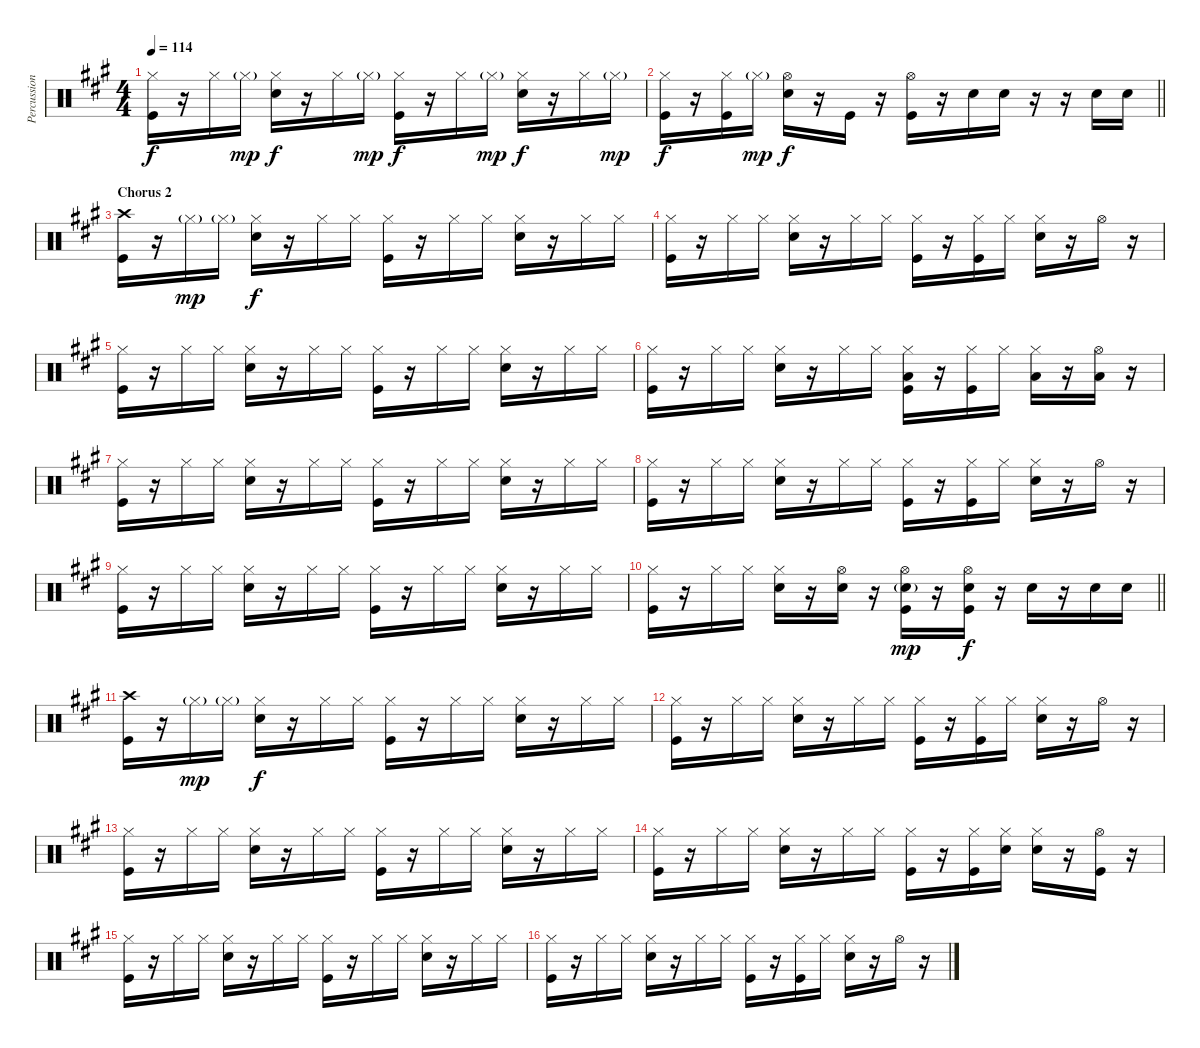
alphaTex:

\track ("Percussion" "Percussion") {instrument percussion}
\staff {score}
\articulation defaults
\ts (4 4)
\tempo 114
\clef neutral
\ks a
("Hi-Hat (closed)" "Kick (hit)").16{dy f} r.16 "Hi-Hat (closed)".16 "Hi-Hat (closed)"{g}.16{dy mp} ("Hi-Hat (closed)" "Snare (hit) 2").16{dy f} r.16 "Hi-Hat (closed)".16 "Hi-Hat (closed)"{g}.16{dy mp} ("Hi-Hat (closed)" "Kick (hit)").16{dy f} r.16 "Hi-Hat (closed)".16 "Hi-Hat (closed)"{g}.16{dy mp} ("Hi-Hat (closed)" "Snare (hit) 2").16{dy f} r.16 "Hi-Hat (closed)".16 "Hi-Hat (closed)"{g}.16{dy mp} |
\barLineRight lightlight
("Hi-Hat (closed)" "Kick (hit)").16{dy f} r.16 ("Hi-Hat (closed)" "Kick (hit)").16 "Hi-Hat (closed)"{g}.16{dy mp} ("Hi-Hat (open)" "Snare (hit) 2").16{dy f} r.16 "Kick (hit)".16 r.16 ("Hi-Hat (open)" "Kick (hit)").16 r.16 "Snare (hit) 2".16 "Snare (hit) 2".16 r.16 r.16 "Snare (hit) 2".16 "Snare (hit) 2".16 |
\section ("" "Chorus 2")
("Crash high (hit)" "Kick (hit)").16 r.16 "Hi-Hat (closed)"{g}.16{dy mp} "Hi-Hat (closed)"{g}.16 ("Hi-Hat (closed)" "Snare (hit) 2").16{dy f} r.16 "Hi-Hat (closed)".16 "Hi-Hat (closed)".16 ("Hi-Hat (closed)" "Kick (hit)").16 r.16 "Hi-Hat (closed)".16 "Hi-Hat (closed)".16 ("Hi-Hat (closed)" "Snare (hit) 2").16 r.16 "Hi-Hat (closed)".16 "Hi-Hat (closed)".16 |
("Hi-Hat (closed)" "Kick (hit)").16 r.16 "Hi-Hat (closed)".16 "Hi-Hat (closed)".16 ("Hi-Hat (closed)" "Snare (hit) 2").16 r.16 "Hi-Hat (closed)".16 "Hi-Hat (closed)".16 ("Hi-Hat (closed)" "Kick (hit)").16 r.16 ("Hi-Hat (closed)" "Kick (hit)").16 "Hi-Hat (closed)".16 ("Hi-Hat (closed)" "Snare (hit) 2").16 r.16 "Hi-Hat (open)".16 r.16 |
("Hi-Hat (closed)" "Kick (hit)").16 r.16 "Hi-Hat (closed)".16 "Hi-Hat (closed)".16 ("Hi-Hat (closed)" "Snare (hit) 2").16 r.16 "Hi-Hat (closed)".16 "Hi-Hat (closed)".16 ("Hi-Hat (closed)" "Kick (hit)").16 r.16 "Hi-Hat (closed)".16 "Hi-Hat (closed)".16 ("Hi-Hat (closed)" "Snare (hit) 2").16 r.16 "Hi-Hat (closed)".16 "Hi-Hat (closed)".16 |
("Hi-Hat (closed)" "Kick (hit)").16 r.16 "Hi-Hat (closed)".16 "Hi-Hat (closed)".16 ("Hi-Hat (closed)" "Snare (hit) 2").16 r.16 "Hi-Hat (closed)".16 "Hi-Hat (closed)".16 ("Hi-Hat (closed)" "Low Tom (hit)" "Kick (hit)").16 r.16 ("Hi-Hat (closed)" "Kick (hit)").16 "Hi-Hat (closed)".16 ("Hi-Hat (closed)" "Low Tom (hit)").16 r.16 ("Hi-Hat (open)" "Low Tom (hit)").16 r.16 |
("Hi-Hat (closed)" "Kick (hit)").16 r.16 "Hi-Hat (closed)".16 "Hi-Hat (closed)".16 ("Hi-Hat (closed)" "Snare (hit) 2").16 r.16 "Hi-Hat (closed)".16 "Hi-Hat (closed)".16 ("Hi-Hat (closed)" "Kick (hit)").16 r.16 "Hi-Hat (closed)".16 "Hi-Hat (closed)".16 ("Hi-Hat (closed)" "Snare (hit) 2").16 r.16 "Hi-Hat (closed)".16 "Hi-Hat (closed)".16 |
("Hi-Hat (closed)" "Kick (hit)").16 r.16 "Hi-Hat (closed)".16 "Hi-Hat (closed)".16 ("Hi-Hat (closed)" "Snare (hit) 2").16 r.16 "Hi-Hat (closed)".16 "Hi-Hat (closed)".16 ("Hi-Hat (closed)" "Kick (hit)").16 r.16 ("Hi-Hat (closed)" "Kick (hit)").16 "Hi-Hat (closed)".16 ("Hi-Hat (closed)" "Snare (hit) 2").16 r.16 "Hi-Hat (open)".16 r.16 |
("Hi-Hat (closed)" "Kick (hit)").16 r.16 "Hi-Hat (closed)".16 "Hi-Hat (closed)".16 ("Hi-Hat (closed)" "Snare (hit) 2").16 r.16 "Hi-Hat (closed)".16 "Hi-Hat (closed)".16 ("Hi-Hat (closed)" "Kick (hit)").16 r.16 "Hi-Hat (closed)".16 "Hi-Hat (closed)".16 ("Hi-Hat (closed)" "Snare (hit) 2").16 r.16 "Hi-Hat (closed)".16 "Hi-Hat (closed)".16 |
\barLineRight lightlight
("Hi-Hat (closed)" "Kick (hit)").16 r.16 "Hi-Hat (closed)".16 "Hi-Hat (closed)".16 ("Hi-Hat (closed)" "Snare (hit) 2").16 r.16 ("Hi-Hat (open)" "Snare (hit) 2").16 r.16 ("Hi-Hat (open)" "Snare (hit) 2"{g} "Kick (hit)").16{dy mp} r.16 ("Hi-Hat (open)" "Snare (hit) 2" "Kick (hit)").16{dy f} r.16 "Snare (hit) 2".16 r.16 "Snare (hit) 2".16 "Snare (hit) 2".16 |
("Crash high (hit)" "Kick (hit)").16 r.16 "Hi-Hat (closed)"{g}.16{dy mp} "Hi-Hat (closed)"{g}.16 ("Hi-Hat (closed)" "Snare (hit) 2").16{dy f} r.16 "Hi-Hat (closed)".16 "Hi-Hat (closed)".16 ("Hi-Hat (closed)" "Kick (hit)").16 r.16 "Hi-Hat (closed)".16 "Hi-Hat (closed)".16 ("Hi-Hat (closed)" "Snare (hit) 2").16 r.16 "Hi-Hat (closed)".16 "Hi-Hat (closed)".16 |
("Hi-Hat (closed)" "Kick (hit)").16 r.16 "Hi-Hat (closed)".16 "Hi-Hat (closed)".16 ("Hi-Hat (closed)" "Snare (hit) 2").16 r.16 "Hi-Hat (closed)".16 "Hi-Hat (closed)".16 ("Hi-Hat (closed)" "Kick (hit)").16 r.16 ("Hi-Hat (closed)" "Kick (hit)").16 "Hi-Hat (closed)".16 ("Hi-Hat (closed)" "Snare (hit) 2").16 r.16 "Hi-Hat (open)".16 r.16 |
("Hi-Hat (closed)" "Kick (hit)").16 r.16 "Hi-Hat (closed)".16 "Hi-Hat (closed)".16 ("Hi-Hat (closed)" "Snare (hit) 2").16 r.16 "Hi-Hat (closed)".16 "Hi-Hat (closed)".16 ("Hi-Hat (closed)" "Kick (hit)").16 r.16 "Hi-Hat (closed)".16 "Hi-Hat (closed)".16 ("Hi-Hat (closed)" "Snare (hit) 2").16 r.16 "Hi-Hat (closed)".16 "Hi-Hat (closed)".16 |
("Hi-Hat (closed)" "Kick (hit)").16 r.16 "Hi-Hat (closed)".16 "Hi-Hat (closed)".16 ("Hi-Hat (closed)" "Snare (hit) 2").16 r.16 "Hi-Hat (closed)".16 "Hi-Hat (closed)".16 ("Hi-Hat (closed)" "Kick (hit)").16 r.16 ("Hi-Hat (closed)" "Kick (hit)").16 ("Hi-Hat (closed)" "Snare (hit) 2").16 ("Hi-Hat (closed)" "Snare (hit) 2").16 r.16 ("Hi-Hat (open)" "Kick (hit)").16 r.16 |
("Hi-Hat (closed)" "Kick (hit)").16 r.16 "Hi-Hat (closed)".16 "Hi-Hat (closed)".16 ("Hi-Hat (closed)" "Snare (hit) 2").16 r.16 "Hi-Hat (closed)".16 "Hi-Hat (closed)".16 ("Hi-Hat (closed)" "Kick (hit)").16 r.16 "Hi-Hat (closed)".16 "Hi-Hat (closed)".16 ("Hi-Hat (closed)" "Snare (hit) 2").16 r.16 "Hi-Hat (closed)".16 "Hi-Hat (closed)".16 |
("Hi-Hat (closed)" "Kick (hit)").16 r.16 "Hi-Hat (closed)".16 "Hi-Hat (closed)".16 ("Hi-Hat (closed)" "Snare (hit) 2").16 r.16 "Hi-Hat (closed)".16 "Hi-Hat (closed)".16 ("Hi-Hat (closed)" "Kick (hit)").16 r.16 ("Hi-Hat (closed)" "Kick (hit)").16 "Hi-Hat (closed)".16 ("Hi-Hat (closed)" "Snare (hit) 2").16 r.16 "Hi-Hat (open)".16 r.16
